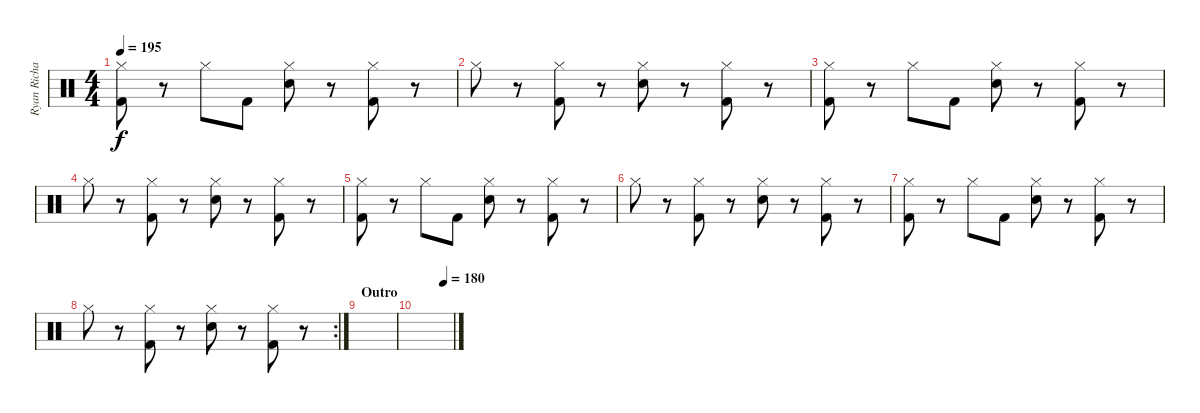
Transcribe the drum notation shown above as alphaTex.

\track ("Ryan Richards" "Ryan Richa") {instrument percussion}
\staff {score}
\articulation defaults
\ts (4 4)
\tempo 195
\clef neutral
\ks c
("Kick (hit) 2" "Hi-Hat (closed)").8{dy f} r.8 "Hi-Hat (closed)".8 "Kick (hit) 2".8 ("Hi-Hat (closed)" "Snare (hit) 2").8 r.8 ("Kick (hit) 2" "Hi-Hat (closed)").8 r.8 |
"Hi-Hat (closed)".8 r.8 ("Kick (hit) 2" "Hi-Hat (closed)").8 r.8 ("Hi-Hat (closed)" "Snare (hit) 2").8 r.8 ("Kick (hit) 2" "Hi-Hat (closed)").8 r.8 |
("Kick (hit) 2" "Hi-Hat (closed)").8 r.8 "Hi-Hat (closed)".8 "Kick (hit) 2".8 ("Hi-Hat (closed)" "Snare (hit) 2").8 r.8 ("Kick (hit) 2" "Hi-Hat (closed)").8 r.8 |
"Hi-Hat (closed)".8 r.8 ("Kick (hit) 2" "Hi-Hat (closed)").8 r.8 ("Hi-Hat (closed)" "Snare (hit) 2").8 r.8 ("Kick (hit) 2" "Hi-Hat (closed)").8 r.8 |
("Kick (hit) 2" "Hi-Hat (closed)").8 r.8 "Hi-Hat (closed)".8 "Kick (hit) 2".8 ("Hi-Hat (closed)" "Snare (hit) 2").8 r.8 ("Kick (hit) 2" "Hi-Hat (closed)").8 r.8 |
"Hi-Hat (closed)".8 r.8 ("Kick (hit) 2" "Hi-Hat (closed)").8 r.8 ("Hi-Hat (closed)" "Snare (hit) 2").8 r.8 ("Kick (hit) 2" "Hi-Hat (closed)").8 r.8 |
("Kick (hit) 2" "Hi-Hat (closed)").8 r.8 "Hi-Hat (closed)".8 "Kick (hit) 2".8 ("Hi-Hat (closed)" "Snare (hit) 2").8 r.8 ("Kick (hit) 2" "Hi-Hat (closed)").8 r.8 |
\rc 2 "Hi-Hat (closed)".8
r.8 ("Kick (hit) 2" "Hi-Hat (closed)").8 r.8 ("Hi-Hat (closed)" "Snare (hit) 2").8 r.8 ("Kick (hit) 2" "Hi-Hat (closed)").8 r.8 |
\section ("" "Outro")
|
\tempo (180 0.75)
